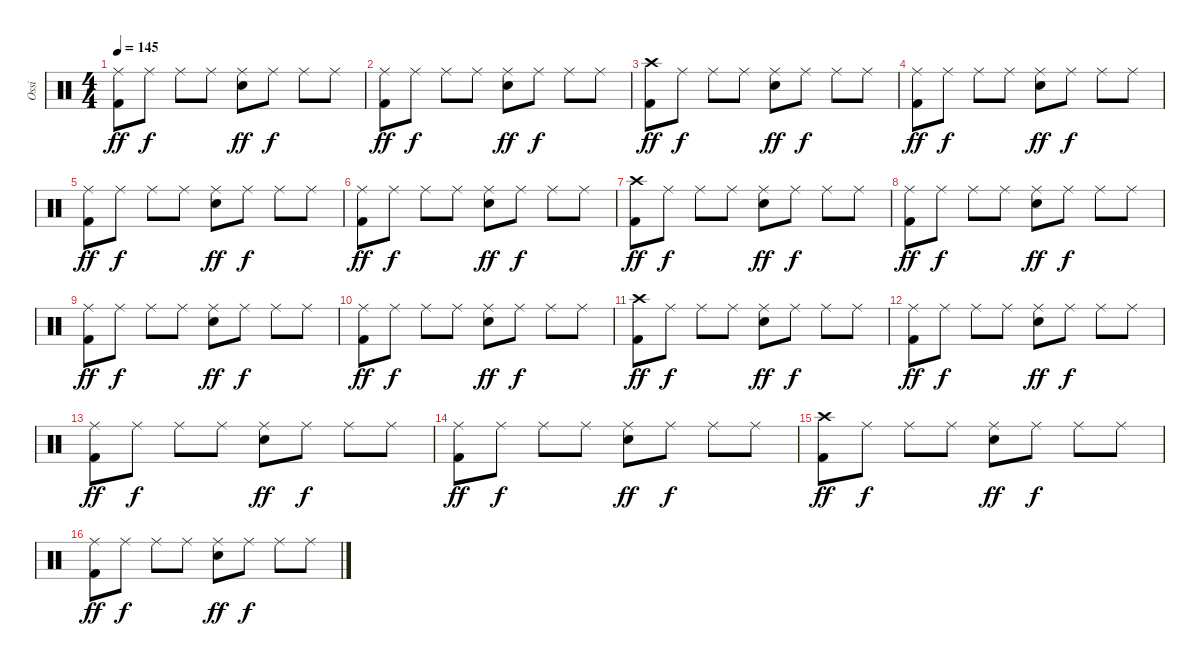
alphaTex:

\track ("Ossi" "Ossi") {instrument percussion}
\staff {score}
\articulation defaults
\ts (4 4)
\tempo 145
\clef neutral
\ks c
("Ride (middle)" "Kick (hit) 2").8{dy ff} "Ride (middle)".8{dy f} "Ride (middle)".8 "Ride (middle)".8 ("Ride (middle)" "Electric Snare (hit)").8{dy ff} "Ride (middle)".8{dy f} "Ride (middle)".8 "Ride (middle)".8 |
("Ride (middle)" "Kick (hit) 2").8{dy ff} "Ride (middle)".8{dy f} "Ride (middle)".8 "Ride (middle)".8 ("Ride (middle)" "Electric Snare (hit)").8{dy ff} "Ride (middle)".8{dy f} "Ride (middle)".8 "Ride (middle)".8 |
("Crash high (hit)" "Kick (hit) 2").8{dy ff} "Ride (middle)".8{dy f} "Ride (middle)".8 "Ride (middle)".8 ("Ride (middle)" "Electric Snare (hit)").8{dy ff} "Ride (middle)".8{dy f} "Ride (middle)".8 "Ride (middle)".8 |
("Ride (middle)" "Kick (hit) 2").8{dy ff} "Ride (middle)".8{dy f} "Ride (middle)".8 "Ride (middle)".8 ("Ride (middle)" "Electric Snare (hit)").8{dy ff} "Ride (middle)".8{dy f} "Ride (middle)".8 "Ride (middle)".8 |
("Ride (middle)" "Kick (hit) 2").8{dy ff} "Ride (middle)".8{dy f} "Ride (middle)".8 "Ride (middle)".8 ("Ride (middle)" "Electric Snare (hit)").8{dy ff} "Ride (middle)".8{dy f} "Ride (middle)".8 "Ride (middle)".8 |
("Ride (middle)" "Kick (hit) 2").8{dy ff} "Ride (middle)".8{dy f} "Ride (middle)".8 "Ride (middle)".8 ("Ride (middle)" "Electric Snare (hit)").8{dy ff} "Ride (middle)".8{dy f} "Ride (middle)".8 "Ride (middle)".8 |
("Crash high (hit)" "Kick (hit) 2").8{dy ff} "Ride (middle)".8{dy f} "Ride (middle)".8 "Ride (middle)".8 ("Ride (middle)" "Electric Snare (hit)").8{dy ff} "Ride (middle)".8{dy f} "Ride (middle)".8 "Ride (middle)".8 |
("Ride (middle)" "Kick (hit) 2").8{dy ff} "Ride (middle)".8{dy f} "Ride (middle)".8 "Ride (middle)".8 ("Ride (middle)" "Electric Snare (hit)").8{dy ff} "Ride (middle)".8{dy f} "Ride (middle)".8 "Ride (middle)".8 |
("Ride (middle)" "Kick (hit) 2").8{dy ff} "Ride (middle)".8{dy f} "Ride (middle)".8 "Ride (middle)".8 ("Ride (middle)" "Electric Snare (hit)").8{dy ff} "Ride (middle)".8{dy f} "Ride (middle)".8 "Ride (middle)".8 |
("Ride (middle)" "Kick (hit) 2").8{dy ff} "Ride (middle)".8{dy f} "Ride (middle)".8 "Ride (middle)".8 ("Ride (middle)" "Electric Snare (hit)").8{dy ff} "Ride (middle)".8{dy f} "Ride (middle)".8 "Ride (middle)".8 |
("Crash high (hit)" "Kick (hit) 2").8{dy ff} "Ride (middle)".8{dy f} "Ride (middle)".8 "Ride (middle)".8 ("Ride (middle)" "Electric Snare (hit)").8{dy ff} "Ride (middle)".8{dy f} "Ride (middle)".8 "Ride (middle)".8 |
("Ride (middle)" "Kick (hit) 2").8{dy ff} "Ride (middle)".8{dy f} "Ride (middle)".8 "Ride (middle)".8 ("Ride (middle)" "Electric Snare (hit)").8{dy ff} "Ride (middle)".8{dy f} "Ride (middle)".8 "Ride (middle)".8 |
("Ride (middle)" "Kick (hit) 2").8{dy ff} "Ride (middle)".8{dy f} "Ride (middle)".8 "Ride (middle)".8 ("Ride (middle)" "Electric Snare (hit)").8{dy ff} "Ride (middle)".8{dy f} "Ride (middle)".8 "Ride (middle)".8 |
("Ride (middle)" "Kick (hit) 2").8{dy ff} "Ride (middle)".8{dy f} "Ride (middle)".8 "Ride (middle)".8 ("Ride (middle)" "Electric Snare (hit)").8{dy ff} "Ride (middle)".8{dy f} "Ride (middle)".8 "Ride (middle)".8 |
("Crash high (hit)" "Kick (hit) 2").8{dy ff} "Ride (middle)".8{dy f} "Ride (middle)".8 "Ride (middle)".8 ("Ride (middle)" "Electric Snare (hit)").8{dy ff} "Ride (middle)".8{dy f} "Ride (middle)".8 "Ride (middle)".8 |
("Ride (middle)" "Kick (hit) 2").8{dy ff} "Ride (middle)".8{dy f} "Ride (middle)".8 "Ride (middle)".8 ("Ride (middle)" "Electric Snare (hit)").8{dy ff} "Ride (middle)".8{dy f} "Ride (middle)".8 "Ride (middle)".8
